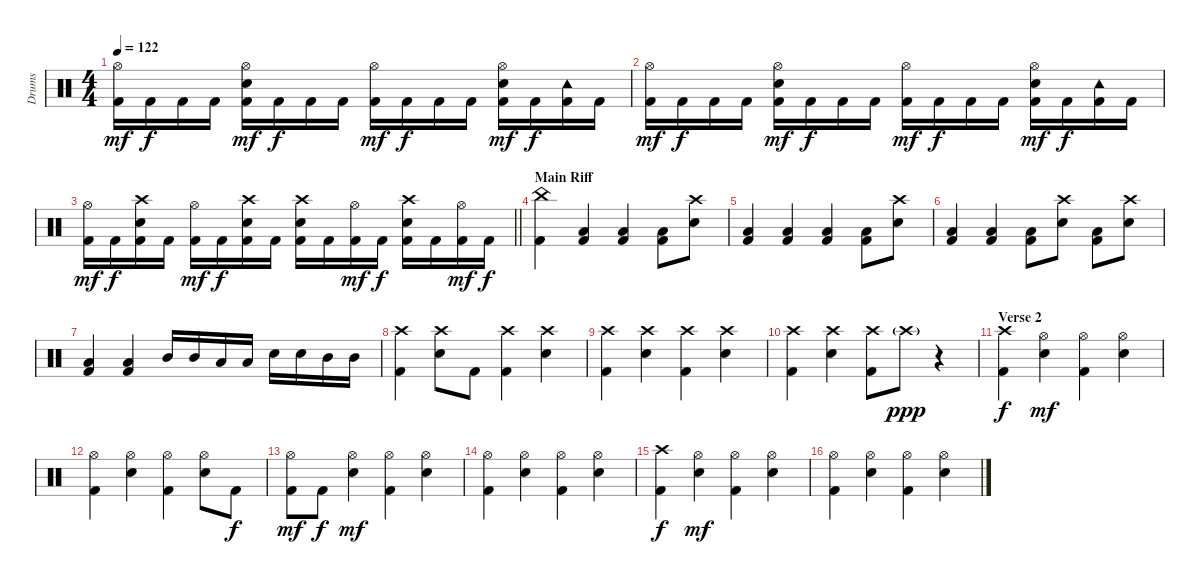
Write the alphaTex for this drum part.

\track ("Drums" "Drums") {instrument percussion}
\staff {score}
\articulation defaults
\ts (4 4)
\tempo 122
\clef neutral
\ks c
("Hi-Hat (open)" "Kick (hit) 2").16{dy mf} "Kick (hit) 2".16{dy f} "Kick (hit) 2".16 "Kick (hit) 2".16 ("Hi-Hat (open)" "Electric Snare (hit)" "Kick (hit) 2").16{dy mf} "Kick (hit) 2".16{dy f} "Kick (hit) 2".16 "Kick (hit) 2".16 ("Hi-Hat (open)" "Kick (hit) 2").16{dy mf} "Kick (hit) 2".16{dy f} "Kick (hit) 2".16 "Kick (hit) 2".16 ("Hi-Hat (open)" "Electric Snare (hit)" "Kick (hit) 2").16{dy mf} "Kick (hit) 2".16{dy f} ("Tambourine (hit)" "Kick (hit) 2").16 "Kick (hit) 2".16 |
("Hi-Hat (open)" "Kick (hit) 2").16{dy mf} "Kick (hit) 2".16{dy f} "Kick (hit) 2".16 "Kick (hit) 2".16 ("Hi-Hat (open)" "Electric Snare (hit)" "Kick (hit) 2").16{dy mf} "Kick (hit) 2".16{dy f} "Kick (hit) 2".16 "Kick (hit) 2".16 ("Hi-Hat (open)" "Kick (hit) 2").16{dy mf} "Kick (hit) 2".16{dy f} "Kick (hit) 2".16 "Kick (hit) 2".16 ("Hi-Hat (open)" "Electric Snare (hit)" "Kick (hit) 2").16{dy mf} "Kick (hit) 2".16{dy f} ("Tambourine (hit)" "Kick (hit) 2").16 "Kick (hit) 2".16 |
\barLineRight lightlight
("Hi-Hat (open)" "Kick (hit) 2").16{dy mf} "Kick (hit) 2".16{dy f} ("Crash high (hit)" "Electric Snare (hit)" "Kick (hit) 2").16 "Kick (hit) 2".16 ("Hi-Hat (open)" "Kick (hit) 2").16{dy mf} "Kick (hit) 2".16{dy f} ("Crash high (hit)" "Electric Snare (hit)" "Kick (hit) 2").16 "Kick (hit) 2".16 ("Crash high (hit)" "Electric Snare (hit)" "Kick (hit) 2").16 "Kick (hit) 2".16 ("Hi-Hat (open)" "Kick (hit) 2").16{dy mf} "Kick (hit) 2".16{dy f} ("Crash high (hit)" "Electric Snare (hit)" "Kick (hit) 2").16 "Kick (hit) 2".16 ("Hi-Hat (open)" "Kick (hit) 2").16{dy mf} "Kick (hit) 2".16{dy f} |
\section ("" "Main Riff")
("China (hit)" "Kick (hit) 2").4 ("Low Tom (hit)" "Kick (hit) 2").4 ("Low Tom (hit)" "Kick (hit) 2").4 ("Low Tom (hit)" "Kick (hit) 2").8 ("Crash high (hit)" "Electric Snare (hit)").8 |
("Low Tom (hit)" "Kick (hit) 2").4 ("Low Tom (hit)" "Kick (hit) 2").4 ("Low Tom (hit)" "Kick (hit) 2").4 ("Low Tom (hit)" "Kick (hit) 2").8 ("Crash high (hit)" "Electric Snare (hit)").8 |
("Low Tom (hit)" "Kick (hit) 2").4 ("Low Tom (hit)" "Kick (hit) 2").4 ("Low Tom (hit)" "Kick (hit) 2").8 ("Crash high (hit)" "Electric Snare (hit)").8 ("Low Tom (hit)" "Kick (hit) 2").8 ("Crash high (hit)" "Electric Snare (hit)").8 |
("Low Tom (hit)" "Kick (hit) 2").4 ("Low Tom (hit)" "Kick (hit) 2").4 "Mid Tom (hit)".16 "Mid Tom (hit)".16 "Low Tom (hit)".16 "Low Tom (hit)".16 "Electric Snare (hit)".16 "Electric Snare (hit)".16 "Mid Tom (hit)".16 "Mid Tom (hit)".16 |
("Crash high (hit)" "Kick (hit) 2").4 ("Crash high (hit)" "Electric Snare (hit)").8 "Kick (hit) 2".8 ("Crash high (hit)" "Kick (hit) 2").4 ("Crash high (hit)" "Electric Snare (hit)").4 |
("Crash high (hit)" "Kick (hit) 2").4 ("Crash high (hit)" "Electric Snare (hit)").4 ("Crash high (hit)" "Kick (hit) 2").4 ("Crash high (hit)" "Electric Snare (hit)").4 |
("Crash high (hit)" "Kick (hit) 2").4 ("Crash high (hit)" "Electric Snare (hit)").4 ("Crash high (hit)" "Kick (hit) 2").8 "Crash high (hit)"{g}.8{dy ppp} r.4 |
\section ("" "Verse 2")
("Crash high (hit)" "Kick (hit) 2").4{dy f} ("Hi-Hat (open)" "Electric Snare (hit)").4{dy mf} ("Hi-Hat (open)" "Kick (hit) 2").4 ("Hi-Hat (open)" "Electric Snare (hit)").4 |
("Hi-Hat (open)" "Kick (hit) 2").4 ("Hi-Hat (open)" "Electric Snare (hit)").4 ("Hi-Hat (open)" "Kick (hit) 2").4 ("Hi-Hat (open)" "Electric Snare (hit)").8 "Kick (hit) 2".8{dy f} |
("Hi-Hat (open)" "Kick (hit) 2").8{dy mf} "Kick (hit) 2".8{dy f} ("Hi-Hat (open)" "Electric Snare (hit)").4{dy mf} ("Hi-Hat (open)" "Kick (hit) 2").4 ("Hi-Hat (open)" "Electric Snare (hit)").4 |
("Hi-Hat (open)" "Kick (hit) 2").4 ("Hi-Hat (open)" "Electric Snare (hit)").4 ("Hi-Hat (open)" "Kick (hit) 2").4 ("Hi-Hat (open)" "Electric Snare (hit)").4 |
("Crash high (hit)" "Kick (hit) 2").4{dy f} ("Hi-Hat (open)" "Electric Snare (hit)").4{dy mf} ("Hi-Hat (open)" "Kick (hit) 2").4 ("Hi-Hat (open)" "Electric Snare (hit)").4 |
("Hi-Hat (open)" "Kick (hit) 2").4 ("Hi-Hat (open)" "Electric Snare (hit)").4 ("Hi-Hat (open)" "Kick (hit) 2").4 ("Hi-Hat (open)" "Electric Snare (hit)").4
